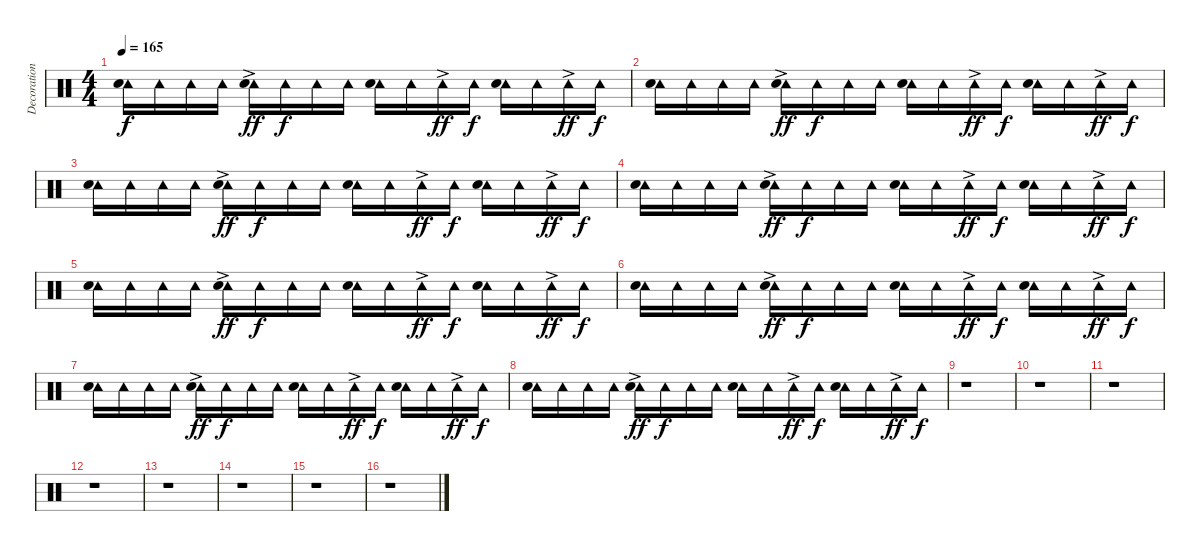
\track ("Decoration" "Decoration") {instrument percussion}
\staff {score}
\articulation defaults
\ts (4 4)
\tempo 165
\clef neutral
\ks c
("Tambourine (hit)" "Snare (hit) 2").16{dy f} "Tambourine (hit)".16 "Tambourine (hit)".16 "Tambourine (hit)".16 ("Tambourine (hit)"{ac} "Snare (hit) 2").16{dy ff} "Tambourine (hit)".16{dy f} "Tambourine (hit)".16 "Tambourine (hit)".16 ("Tambourine (hit)" "Snare (hit) 2").16 "Tambourine (hit)".16 "Tambourine (hit)"{ac}.16{dy ff} "Tambourine (hit)".16{dy f} ("Tambourine (hit)" "Snare (hit) 2").16 "Tambourine (hit)".16 "Tambourine (hit)"{ac}.16{dy ff} "Tambourine (hit)".16{dy f} |
("Tambourine (hit)" "Snare (hit) 2").16 "Tambourine (hit)".16 "Tambourine (hit)".16 "Tambourine (hit)".16 ("Tambourine (hit)"{ac} "Snare (hit) 2").16{dy ff} "Tambourine (hit)".16{dy f} "Tambourine (hit)".16 "Tambourine (hit)".16 ("Tambourine (hit)" "Snare (hit) 2").16 "Tambourine (hit)".16 "Tambourine (hit)"{ac}.16{dy ff} "Tambourine (hit)".16{dy f} ("Tambourine (hit)" "Snare (hit) 2").16 "Tambourine (hit)".16 "Tambourine (hit)"{ac}.16{dy ff} "Tambourine (hit)".16{dy f} |
("Tambourine (hit)" "Snare (hit) 2").16 "Tambourine (hit)".16 "Tambourine (hit)".16 "Tambourine (hit)".16 ("Tambourine (hit)"{ac} "Snare (hit) 2").16{dy ff} "Tambourine (hit)".16{dy f} "Tambourine (hit)".16 "Tambourine (hit)".16 ("Tambourine (hit)" "Snare (hit) 2").16 "Tambourine (hit)".16 "Tambourine (hit)"{ac}.16{dy ff} "Tambourine (hit)".16{dy f} ("Tambourine (hit)" "Snare (hit) 2").16 "Tambourine (hit)".16 "Tambourine (hit)"{ac}.16{dy ff} "Tambourine (hit)".16{dy f} |
("Tambourine (hit)" "Snare (hit) 2").16 "Tambourine (hit)".16 "Tambourine (hit)".16 "Tambourine (hit)".16 ("Tambourine (hit)"{ac} "Snare (hit) 2").16{dy ff} "Tambourine (hit)".16{dy f} "Tambourine (hit)".16 "Tambourine (hit)".16 ("Tambourine (hit)" "Snare (hit) 2").16 "Tambourine (hit)".16 "Tambourine (hit)"{ac}.16{dy ff} "Tambourine (hit)".16{dy f} ("Tambourine (hit)" "Snare (hit) 2").16 "Tambourine (hit)".16 "Tambourine (hit)"{ac}.16{dy ff} "Tambourine (hit)".16{dy f} |
("Tambourine (hit)" "Snare (hit) 2").16 "Tambourine (hit)".16 "Tambourine (hit)".16 "Tambourine (hit)".16 ("Tambourine (hit)"{ac} "Snare (hit) 2").16{dy ff} "Tambourine (hit)".16{dy f} "Tambourine (hit)".16 "Tambourine (hit)".16 ("Tambourine (hit)" "Snare (hit) 2").16 "Tambourine (hit)".16 "Tambourine (hit)"{ac}.16{dy ff} "Tambourine (hit)".16{dy f} ("Tambourine (hit)" "Snare (hit) 2").16 "Tambourine (hit)".16 "Tambourine (hit)"{ac}.16{dy ff} "Tambourine (hit)".16{dy f} |
("Tambourine (hit)" "Snare (hit) 2").16 "Tambourine (hit)".16 "Tambourine (hit)".16 "Tambourine (hit)".16 ("Tambourine (hit)"{ac} "Snare (hit) 2").16{dy ff} "Tambourine (hit)".16{dy f} "Tambourine (hit)".16 "Tambourine (hit)".16 ("Tambourine (hit)" "Snare (hit) 2").16 "Tambourine (hit)".16 "Tambourine (hit)"{ac}.16{dy ff} "Tambourine (hit)".16{dy f} ("Tambourine (hit)" "Snare (hit) 2").16 "Tambourine (hit)".16 "Tambourine (hit)"{ac}.16{dy ff} "Tambourine (hit)".16{dy f} |
("Tambourine (hit)" "Snare (hit) 2").16 "Tambourine (hit)".16 "Tambourine (hit)".16 "Tambourine (hit)".16 ("Tambourine (hit)"{ac} "Snare (hit) 2").16{dy ff} "Tambourine (hit)".16{dy f} "Tambourine (hit)".16 "Tambourine (hit)".16 ("Tambourine (hit)" "Snare (hit) 2").16 "Tambourine (hit)".16 "Tambourine (hit)"{ac}.16{dy ff} "Tambourine (hit)".16{dy f} ("Tambourine (hit)" "Snare (hit) 2").16 "Tambourine (hit)".16 "Tambourine (hit)"{ac}.16{dy ff} "Tambourine (hit)".16{dy f} |
("Tambourine (hit)" "Snare (hit) 2").16 "Tambourine (hit)".16 "Tambourine (hit)".16 "Tambourine (hit)".16 ("Tambourine (hit)"{ac} "Snare (hit) 2").16{dy ff} "Tambourine (hit)".16{dy f} "Tambourine (hit)".16 "Tambourine (hit)".16 ("Tambourine (hit)" "Snare (hit) 2").16 "Tambourine (hit)".16 "Tambourine (hit)"{ac}.16{dy ff} "Tambourine (hit)".16{dy f} ("Tambourine (hit)" "Snare (hit) 2").16 "Tambourine (hit)".16 "Tambourine (hit)"{ac}.16{dy ff} "Tambourine (hit)".16{dy f} |
r.1 |
r.1 |
r.1 |
r.1 |
r.1 |
r.1 |
r.1 |
r.1
